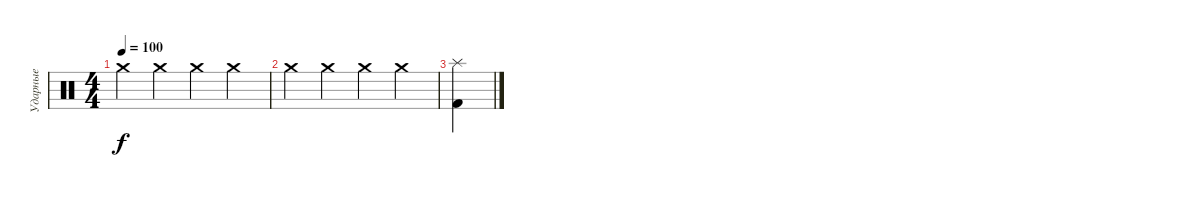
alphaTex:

\track ("Ударные" "Ударные") {instrument percussion}
\staff {score}
\articulation defaults
\ts (4 4)
\tempo 100
\clef neutral
\ks c "Crash medium (hit)".4{dy f} "Crash medium (hit)".4 "Crash medium (hit)".4 "Crash medium (hit)".4
|
"Crash medium (hit)".4 "Crash medium (hit)".4 "Crash medium (hit)".4 "Crash medium (hit)".4 |
("Splash (hit)" "Kick (hit) 2").4
